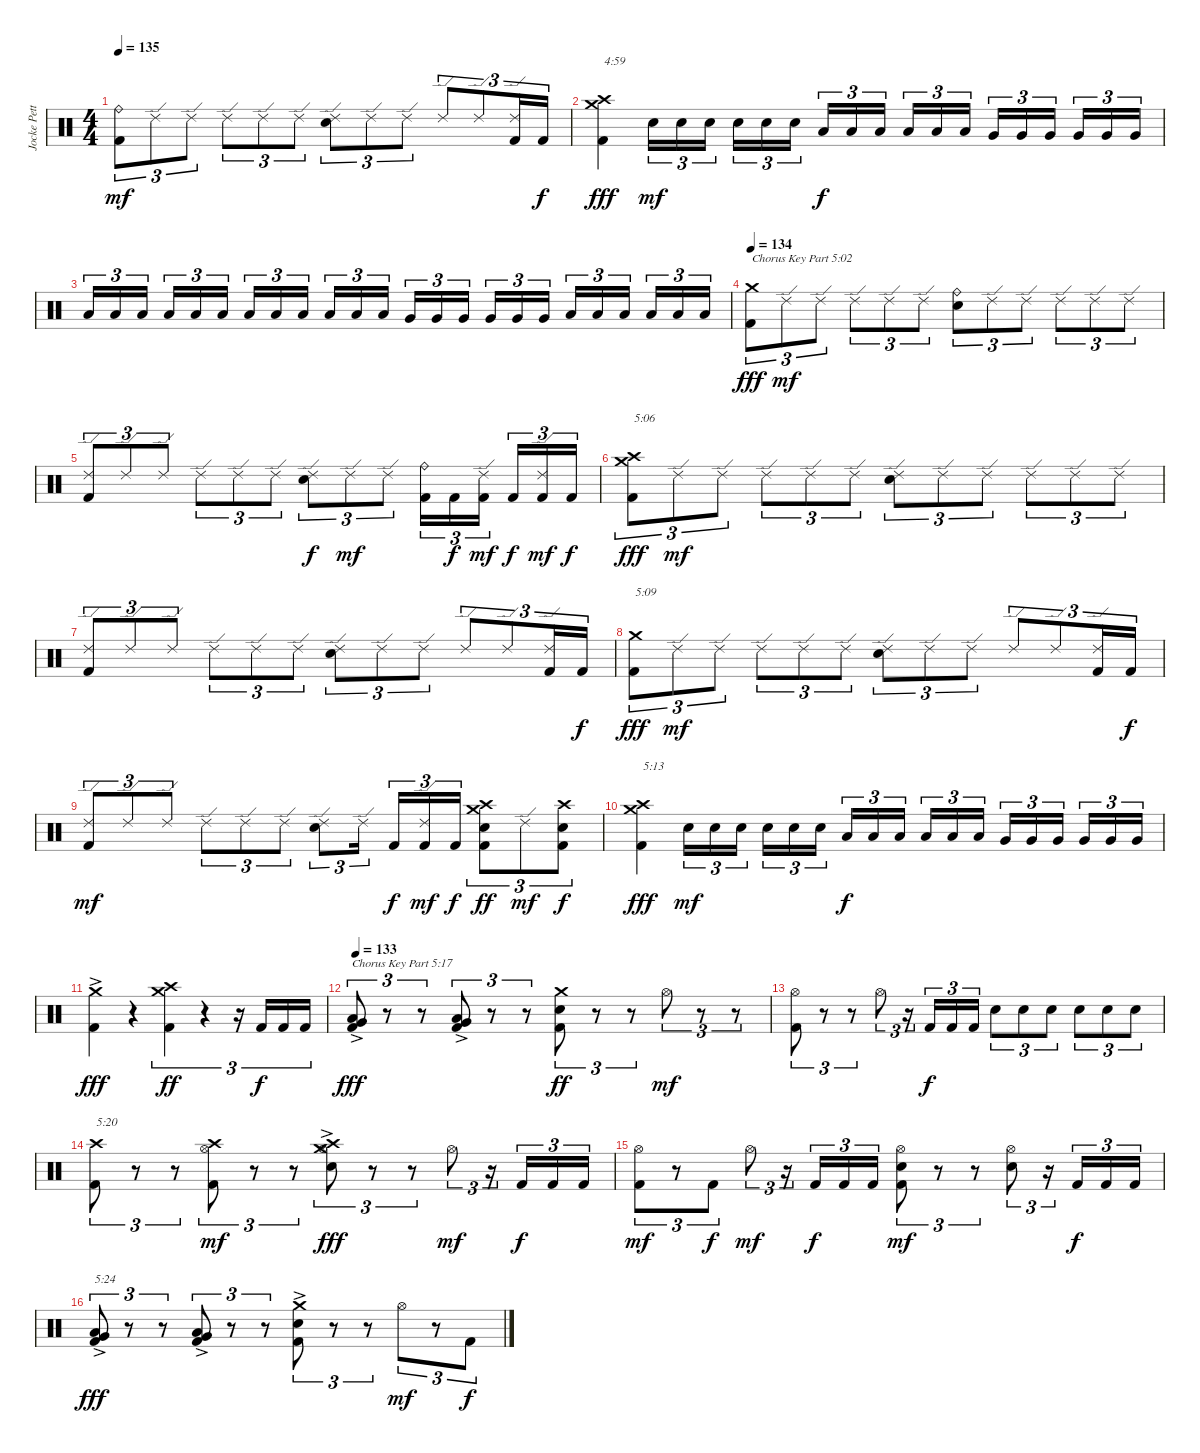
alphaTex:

\track ("Jocke Pettersson" "Jocke Pett") {instrument percussion}
\staff {score}
\articulation defaults
\ts (4 4)
\tempo 135
\clef neutral
\ks c
("Kick (hit) 2" "Ride (bell)").8{tu (3 2) dy mf} "Ride (edge) 2".8{tu (3 2)} "Ride (edge) 2".8{tu (3 2)} "Ride (edge) 2".8{tu (3 2)} "Ride (edge) 2".8{tu (3 2)} "Ride (edge) 2".8{tu (3 2)} ("Electric Snare (hit)" "Ride (edge) 2").8{tu (3 2)} "Ride (edge) 2".8{tu (3 2)} "Ride (edge) 2".8{tu (3 2)} "Ride (edge) 2".8{tu (3 2)} "Ride (edge) 2".8{tu (3 2)} ("Kick (hit) 2" "Ride (edge) 2").16{tu (3 2)} "Kick (hit) 2".16{tu (3 2) dy f} |
("Kick (hit) 2" "Crash high (hit)" "Crash medium (hit)").4{txt "4:59" dy fff} "Electric Snare (hit)".16{tu (3 2) dy mf} "Electric Snare (hit)".16{tu (3 2)} "Electric Snare (hit)".16{tu (3 2)} "Electric Snare (hit)".16{tu (3 2)} "Electric Snare (hit)".16{tu (3 2)} "Electric Snare (hit)".16{tu (3 2)} "Low Tom (hit)".16{tu (3 2) dy f} "Low Tom (hit)".16{tu (3 2)} "Low Tom (hit)".16{tu (3 2)} "Low Tom (hit)".16{tu (3 2)} "Low Tom (hit)".16{tu (3 2)} "Low Tom (hit)".16{tu (3 2)} "Very Low Tom (hit)".16{tu (3 2)} "Very Low Tom (hit)".16{tu (3 2)} "Very Low Tom (hit)".16{tu (3 2)} "Very Low Tom (hit)".16{tu (3 2)} "Very Low Tom (hit)".16{tu (3 2)} "Very Low Tom (hit)".16{tu (3 2)} |
"Low Tom (hit)".16{tu (3 2)} "Low Tom (hit)".16{tu (3 2)} "Low Tom (hit)".16{tu (3 2)} "Low Tom (hit)".16{tu (3 2)} "Low Tom (hit)".16{tu (3 2)} "Low Tom (hit)".16{tu (3 2)} "Low Tom (hit)".16{tu (3 2)} "Low Tom (hit)".16{tu (3 2)} "Low Tom (hit)".16{tu (3 2)} "Low Tom (hit)".16{tu (3 2)} "Low Tom (hit)".16{tu (3 2)} "Low Tom (hit)".16{tu (3 2)} "Very Low Tom (hit)".16{tu (3 2)} "Very Low Tom (hit)".16{tu (3 2)} "Very Low Tom (hit)".16{tu (3 2)} "Very Low Tom (hit)".16{tu (3 2)} "Very Low Tom (hit)".16{tu (3 2)} "Very Low Tom (hit)".16{tu (3 2)} "Low Floor Tom (hit)".16{tu (3 2)} "Low Floor Tom (hit)".16{tu (3 2)} "Low Floor Tom (hit)".16{tu (3 2)} "Low Floor Tom (hit)".16{tu (3 2)} "Low Floor Tom (hit)".16{tu (3 2)} "Low Floor Tom (hit)".16{tu (3 2)} |
\tempo 134
("Kick (hit) 2" "Crash medium (hit)").8{tu (3 2) txt "Chorus Key Part 5:02" dy fff} "Ride (edge) 2".8{tu (3 2) dy mf} "Ride (edge) 2".8{tu (3 2)} "Ride (edge) 2".8{tu (3 2)} "Ride (edge) 2".8{tu (3 2)} "Ride (edge) 2".8{tu (3 2)} ("Electric Snare (hit)" "Ride (bell)").8{tu (3 2)} "Ride (edge) 2".8{tu (3 2)} "Ride (edge) 2".8{tu (3 2)} "Ride (edge) 2".8{tu (3 2)} "Ride (edge) 2".8{tu (3 2)} "Ride (edge) 2".8{tu (3 2)} |
("Kick (hit) 2" "Ride (edge) 2").8{tu (3 2)} "Ride (edge) 2".8{tu (3 2)} "Ride (edge) 2".8{tu (3 2)} "Ride (edge) 2".8{tu (3 2)} "Ride (edge) 2".8{tu (3 2)} "Ride (edge) 2".8{tu (3 2)} ("Electric Snare (hit)" "Ride (edge) 2").8{tu (3 2) dy f} "Ride (edge) 2".8{tu (3 2) dy mf} "Ride (edge) 2".8{tu (3 2)} ("Kick (hit) 2" "Ride (bell)").16{tu (3 2)} "Kick (hit) 2".16{tu (3 2) dy f} ("Kick (hit) 2" "Ride (edge) 2").16{tu (3 2) dy mf} "Kick (hit) 2".16{tu (3 2) dy f} ("Kick (hit) 2" "Ride (edge) 2").16{tu (3 2) dy mf} "Kick (hit) 2".16{tu (3 2) dy f} |
("Kick (hit) 2" "Crash high (hit)" "Crash medium (hit)").8{tu (3 2) txt "5:06" dy fff} "Ride (edge) 2".8{tu (3 2) dy mf} "Ride (edge) 2".8{tu (3 2)} "Ride (edge) 2".8{tu (3 2)} "Ride (edge) 2".8{tu (3 2)} "Ride (edge) 2".8{tu (3 2)} ("Electric Snare (hit)" "Ride (edge) 2").8{tu (3 2)} "Ride (edge) 2".8{tu (3 2)} "Ride (edge) 2".8{tu (3 2)} "Ride (edge) 2".8{tu (3 2)} "Ride (edge) 2".8{tu (3 2)} "Ride (edge) 2".8{tu (3 2)} |
("Kick (hit) 2" "Ride (edge) 2").8{tu (3 2)} "Ride (edge) 2".8{tu (3 2)} "Ride (edge) 2".8{tu (3 2)} "Ride (edge) 2".8{tu (3 2)} "Ride (edge) 2".8{tu (3 2)} "Ride (edge) 2".8{tu (3 2)} ("Electric Snare (hit)" "Ride (edge) 2").8{tu (3 2)} "Ride (edge) 2".8{tu (3 2)} "Ride (edge) 2".8{tu (3 2)} "Ride (edge) 2".8{tu (3 2)} "Ride (edge) 2".8{tu (3 2)} ("Kick (hit) 2" "Ride (edge) 2").16{tu (3 2)} "Kick (hit) 2".16{tu (3 2) dy f} |
("Kick (hit) 2" "Crash medium (hit)").8{tu (3 2) txt "5:09" dy fff} "Ride (edge) 2".8{tu (3 2) dy mf} "Ride (edge) 2".8{tu (3 2)} "Ride (edge) 2".8{tu (3 2)} "Ride (edge) 2".8{tu (3 2)} "Ride (edge) 2".8{tu (3 2)} ("Electric Snare (hit)" "Ride (edge) 2").8{tu (3 2)} "Ride (edge) 2".8{tu (3 2)} "Ride (edge) 2".8{tu (3 2)} "Ride (edge) 2".8{tu (3 2)} "Ride (edge) 2".8{tu (3 2)} ("Kick (hit) 2" "Ride (edge) 2").16{tu (3 2)} "Kick (hit) 2".16{tu (3 2) dy f} |
("Kick (hit) 2" "Ride (edge) 2").8{tu (3 2) dy mf} "Ride (edge) 2".8{tu (3 2)} "Ride (edge) 2".8{tu (3 2)} "Ride (edge) 2".8{tu (3 2)} "Ride (edge) 2".8{tu (3 2)} "Ride (edge) 2".8{tu (3 2)} ("Electric Snare (hit)" "Ride (edge) 2").8{tu (3 2)} "Ride (edge) 2".16{tu (3 2)} "Kick (hit) 2".16{tu (3 2) dy f} ("Kick (hit) 2" "Ride (edge) 2").16{tu (3 2) dy mf} "Kick (hit) 2".16{tu (3 2) dy f} ("Kick (hit) 2" "Electric Snare (hit)" "Crash medium (hit)" "Crash high (hit)").8{tu (3 2) dy ff} "Ride (edge) 2".8{tu (3 2) dy mf} ("Kick (hit) 2" "Electric Snare (hit)" "Crash high (hit)").8{tu (3 2) dy f} |
("Kick (hit) 2" "Crash high (hit)" "Crash medium (hit)").4{txt "5:13" dy fff} "Electric Snare (hit)".16{tu (3 2) dy mf} "Electric Snare (hit)".16{tu (3 2)} "Electric Snare (hit)".16{tu (3 2)} "Electric Snare (hit)".16{tu (3 2)} "Electric Snare (hit)".16{tu (3 2)} "Electric Snare (hit)".16{tu (3 2)} "Low Tom (hit)".16{tu (3 2) dy f} "Low Tom (hit)".16{tu (3 2)} "Low Tom (hit)".16{tu (3 2)} "Low Tom (hit)".16{tu (3 2)} "Low Tom (hit)".16{tu (3 2)} "Low Tom (hit)".16{tu (3 2)} "Very Low Tom (hit)".16{tu (3 2)} "Very Low Tom (hit)".16{tu (3 2)} "Very Low Tom (hit)".16{tu (3 2)} "Very Low Tom (hit)".16{tu (3 2)} "Very Low Tom (hit)".16{tu (3 2)} "Very Low Tom (hit)".16{tu (3 2)} |
("Kick (hit) 2" "Crash medium (hit)"{ac}).4{dy fff} r.4 ("Kick (hit) 2" "Crash high (hit)" "Crash medium (hit)").4{tu (3 2) dy ff} r.4{tu (3 2)} r.16{tu (3 2)} "Kick (hit) 2".16{tu (3 2) dy f} "Kick (hit) 2".16{tu (3 2)} "Kick (hit) 2".16{tu (3 2)} |
\tempo 133
("Kick (hit) 2" "Very Low Tom (hit)"{ac} "Low Tom (hit)").8{tu (3 2) txt "Chorus Key Part 5:17" dy fff} r.8{tu (3 2)} r.8{tu (3 2)} ("Kick (hit) 2" "Very Low Tom (hit)"{ac} "Low Tom (hit)"{ac}).8{tu (3 2)} r.8{tu (3 2)} r.8{tu (3 2)} ("Kick (hit) 2" "Electric Snare (hit)" "Crash medium (hit)").8{tu (3 2) dy ff} r.8{tu (3 2)} r.8{tu (3 2)} "Hi-Hat (open)".8{tu (3 2) dy mf} r.8{tu (3 2)} r.8{tu (3 2)} |
("Kick (hit) 2" "Hi-Hat (open)").8{tu (3 2)} r.8{tu (3 2)} r.8{tu (3 2)} "Hi-Hat (open)".8{tu (3 2)} r.16{tu (3 2)} "Kick (hit) 2".16{tu (3 2) dy f} "Kick (hit) 2".16{tu (3 2)} "Kick (hit) 2".16{tu (3 2)} "Electric Snare (hit)".8{tu (3 2)} "Electric Snare (hit)".8{tu (3 2)} "Electric Snare (hit)".8{tu (3 2)} "Electric Snare (hit)".8{tu (3 2)} "Electric Snare (hit)".8{tu (3 2)} "Electric Snare (hit)".8{tu (3 2)} |
("Kick (hit) 2" "Crash high (hit)").8{tu (3 2) txt "5:20"} r.8{tu (3 2)} r.8{tu (3 2)} ("Kick (hit) 2" "Hi-Hat (open)" "Crash high (hit)").8{tu (3 2) dy mf} r.8{tu (3 2)} r.8{tu (3 2)} ("Electric Snare (hit)" "Hi-Hat (open)" "Crash high (hit)" "Crash medium (hit)"{ac}).8{tu (3 2) dy fff} r.8{tu (3 2)} r.8{tu (3 2)} "Hi-Hat (open)".8{tu (3 2) dy mf} r.16{tu (3 2)} "Kick (hit) 2".16{tu (3 2) dy f} "Kick (hit) 2".16{tu (3 2)} "Kick (hit) 2".16{tu (3 2)} |
("Kick (hit) 2" "Hi-Hat (open)").8{tu (3 2) dy mf} r.8{tu (3 2)} "Kick (hit) 2".8{tu (3 2) dy f} "Hi-Hat (open)".8{tu (3 2) dy mf} r.16{tu (3 2)} "Kick (hit) 2".16{tu (3 2) dy f} "Kick (hit) 2".16{tu (3 2)} "Kick (hit) 2".16{tu (3 2)} ("Kick (hit) 2" "Electric Snare (hit)" "Hi-Hat (open)").8{tu (3 2) dy mf} r.8{tu (3 2)} r.8{tu (3 2)} ("Electric Snare (hit)" "Hi-Hat (open)").8{tu (3 2)} r.16{tu (3 2)} "Kick (hit) 2".16{tu (3 2) dy f} "Kick (hit) 2".16{tu (3 2)} "Kick (hit) 2".16{tu (3 2)} |
("Kick (hit) 2" "Very Low Tom (hit)"{ac} "Low Tom (hit)").8{tu (3 2) txt "5:24" dy fff} r.8{tu (3 2)} r.8{tu (3 2)} ("Kick (hit) 2" "Very Low Tom (hit)"{ac} "Low Tom (hit)"{ac}).8{tu (3 2)} r.8{tu (3 2)} r.8{tu (3 2)} ("Kick (hit) 2" "Electric Snare (hit)" "Crash medium (hit)"{ac}).8{tu (3 2)} r.8{tu (3 2)} r.8{tu (3 2)} "Hi-Hat (open)".8{tu (3 2) dy mf} r.8{tu (3 2)} "Kick (hit) 2".8{tu (3 2) dy f}
